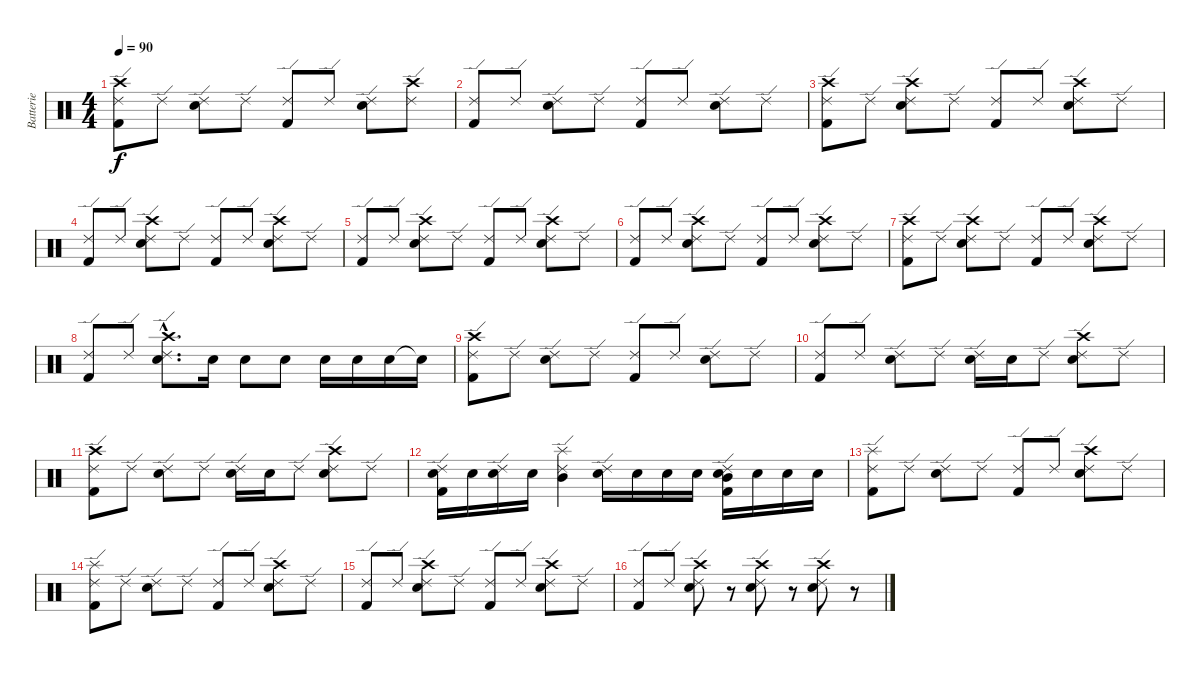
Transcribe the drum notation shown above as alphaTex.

\track ("Batterie" "Batterie") {instrument percussion}
\staff {score}
\articulation defaults
\ts (4 4)
\tempo 90
\clef neutral
\ks c
("Ride (edge) 2" "Kick (hit) 2" "Crash high (hit)").8{dy f} "Ride (edge) 2".8 ("Ride (edge) 2" "Electric Snare (hit)").8 "Ride (edge) 2".8 ("Ride (edge) 2" "Kick (hit) 2").8 "Ride (edge) 2".8 ("Ride (edge) 2" "Electric Snare (hit)").8 ("Ride (edge) 2" "Crash high (hit)").8 |
("Ride (edge) 2" "Kick (hit) 2").8 "Ride (edge) 2".8 ("Ride (edge) 2" "Electric Snare (hit)").8 "Ride (edge) 2".8 ("Ride (edge) 2" "Kick (hit) 2").8 "Ride (edge) 2".8 ("Ride (edge) 2" "Electric Snare (hit)").8 "Ride (edge) 2".8 |
("Ride (edge) 2" "Kick (hit) 2" "Crash high (hit)").8 "Ride (edge) 2".8 ("Ride (edge) 2" "Electric Snare (hit)" "Crash high (hit)").8 "Ride (edge) 2".8 ("Ride (edge) 2" "Kick (hit) 2").8 "Ride (edge) 2".8 ("Ride (edge) 2" "Electric Snare (hit)" "Crash high (hit)").8 "Ride (edge) 2".8 |
("Ride (edge) 2" "Kick (hit) 2").8 "Ride (edge) 2".8 ("Ride (edge) 2" "Electric Snare (hit)" "Crash high (hit)").8 "Ride (edge) 2".8 ("Ride (edge) 2" "Kick (hit) 2").8 "Ride (edge) 2".8 ("Ride (edge) 2" "Electric Snare (hit)" "Crash high (hit)").8 "Ride (edge) 2".8 |
("Ride (edge) 2" "Kick (hit) 2").8 "Ride (edge) 2".8 ("Ride (edge) 2" "Electric Snare (hit)" "Crash high (hit)").8 "Ride (edge) 2".8 ("Ride (edge) 2" "Kick (hit) 2").8 "Ride (edge) 2".8 ("Ride (edge) 2" "Electric Snare (hit)" "Crash high (hit)").8 "Ride (edge) 2".8 |
("Ride (edge) 2" "Kick (hit) 2").8 "Ride (edge) 2".8 ("Ride (edge) 2" "Electric Snare (hit)" "Crash high (hit)").8 "Ride (edge) 2".8 ("Ride (edge) 2" "Kick (hit) 2").8 "Ride (edge) 2".8 ("Ride (edge) 2" "Electric Snare (hit)" "Crash high (hit)").8 "Ride (edge) 2".8 |
("Ride (edge) 2" "Kick (hit) 2" "Crash high (hit)").8 "Ride (edge) 2".8 ("Ride (edge) 2" "Electric Snare (hit)" "Crash high (hit)").8 "Ride (edge) 2".8 ("Ride (edge) 2" "Kick (hit) 2").8 "Ride (edge) 2".8 ("Ride (edge) 2" "Electric Snare (hit)" "Crash high (hit)").8 "Ride (edge) 2".8 |
("Ride (edge) 2" "Kick (hit) 2").8 "Ride (edge) 2".8 ("Ride (edge) 2"{hac} "Electric Snare (hit)"{hac} "Crash high (hit)"{hac}).8{d} "Electric Snare (hit)".16 "Electric Snare (hit)".8 "Electric Snare (hit)".8 "Electric Snare (hit)".16 "Electric Snare (hit)".16 "Electric Snare (hit)".16 "Snare (hit)"{t}.16 |
("Ride (edge) 2" "Kick (hit) 2" "Crash high (hit)").8 "Ride (edge) 2".8 ("Ride (edge) 2" "Electric Snare (hit)").8 "Ride (edge) 2".8 ("Ride (edge) 2" "Kick (hit) 2").8 "Ride (edge) 2".8 ("Ride (edge) 2" "Electric Snare (hit)").8 "Ride (edge) 2".8 |
("Ride (edge) 2" "Kick (hit) 2").8 "Ride (edge) 2".8 ("Ride (edge) 2" "Electric Snare (hit)").8 "Ride (edge) 2".8 ("Ride (edge) 2" "Electric Snare (hit)").16 "Electric Snare (hit)".16 "Ride (edge) 2".8 ("Ride (edge) 2" "Electric Snare (hit)" "Crash high (hit)").8 "Ride (edge) 2".8 |
("Ride (edge) 2" "Kick (hit) 2" "Crash high (hit)").8 "Ride (edge) 2".8 ("Ride (edge) 2" "Electric Snare (hit)").8 "Ride (edge) 2".8 ("Ride (edge) 2" "Electric Snare (hit)").16 "Electric Snare (hit)".16 "Ride (edge) 2".8 ("Ride (edge) 2" "Electric Snare (hit)" "Crash high (hit)").8 "Ride (edge) 2".8 |
("Ride (edge) 2" "Kick (hit) 2" "Electric Snare (hit)").16 "Electric Snare (hit)".16 ("Ride (edge) 2" "Electric Snare (hit)").16 "Electric Snare (hit)".16 ("Ride (edge) 2" "Mid Tom (hit)" "Splash (hit)").4 ("Ride (edge) 2" "Electric Snare (hit)").16 "Electric Snare (hit)".16 "Electric Snare (hit)".16 "Electric Snare (hit)".16 ("Ride (edge) 2" "Mid Tom (hit)" "Kick (hit) 2" "Electric Snare (hit)").16 "Electric Snare (hit)".16 "Electric Snare (hit)".16 "Electric Snare (hit)".16 |
("Ride (edge) 2" "Kick (hit) 2" "Splash (hit)").8 "Ride (edge) 2".8 ("Ride (edge) 2" "Electric Snare (hit)").8 "Ride (edge) 2".8 ("Ride (edge) 2" "Kick (hit) 2").8 "Ride (edge) 2".8 ("Ride (edge) 2" "Electric Snare (hit)" "Crash high (hit)").8 "Ride (edge) 2".8 |
("Ride (edge) 2" "Kick (hit) 2" "Splash (hit)").8 "Ride (edge) 2".8 ("Ride (edge) 2" "Electric Snare (hit)").8 "Ride (edge) 2".8 ("Ride (edge) 2" "Kick (hit) 2").8 "Ride (edge) 2".8 ("Ride (edge) 2" "Electric Snare (hit)" "Crash high (hit)").8 "Ride (edge) 2".8 |
("Ride (edge) 2" "Kick (hit) 2").8 "Ride (edge) 2".8 ("Ride (edge) 2" "Electric Snare (hit)" "Crash high (hit)").8 "Ride (edge) 2".8 ("Ride (edge) 2" "Kick (hit) 2").8 "Ride (edge) 2".8 ("Ride (edge) 2" "Electric Snare (hit)" "Crash high (hit)").8 "Ride (edge) 2".8 |
("Ride (edge) 2" "Kick (hit) 2").8 "Ride (edge) 2".8 ("Ride (edge) 2" "Electric Snare (hit)" "Crash high (hit)").8 r.8 ("Ride (edge) 2" "Electric Snare (hit)" "Crash high (hit)").8 r.8 ("Ride (edge) 2" "Electric Snare (hit)" "Crash high (hit)").8 r.8
